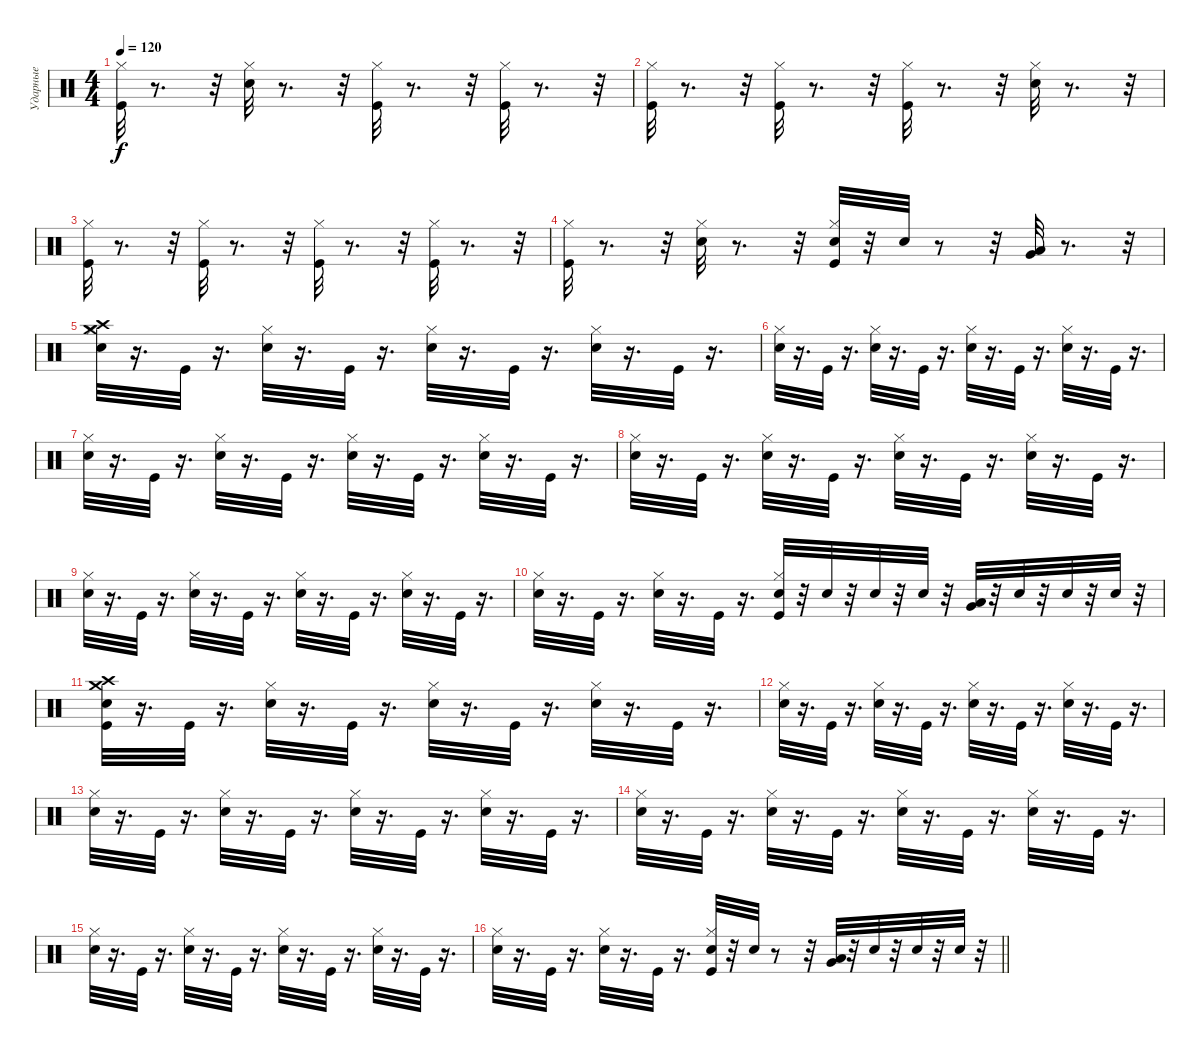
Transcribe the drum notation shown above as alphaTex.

\track ("Ударные" "Ударные") {instrument percussion}
\staff {score}
\articulation defaults
\ts (4 4)
\tempo 120
\clef neutral
\ks c
("Kick (hit)" "Hi-Hat (closed)").32{dy f} r.8{d} r.32 ("Hi-Hat (closed)" "Snare (hit) 2").32 r.8{d} r.32 ("Kick (hit)" "Hi-Hat (closed)").32 r.8{d} r.32 ("Kick (hit)" "Hi-Hat (closed)").32 r.8{d} r.32 |
("Hi-Hat (closed)" "Kick (hit)").32 r.8{d} r.32 ("Kick (hit)" "Hi-Hat (closed)").32 r.8{d} r.32 ("Kick (hit)" "Hi-Hat (closed)").32 r.8{d} r.32 ("Hi-Hat (closed)" "Snare (hit) 2").32 r.8{d} r.32 |
("Kick (hit)" "Hi-Hat (closed)").32 r.8{d} r.32 ("Kick (hit)" "Hi-Hat (closed)").32 r.8{d} r.32 ("Hi-Hat (closed)" "Kick (hit)").32 r.8{d} r.32 ("Kick (hit)" "Hi-Hat (closed)").32 r.8{d} r.32 |
("Kick (hit)" "Hi-Hat (closed)").32 r.8{d} r.32 ("Snare (hit) 2" "Hi-Hat (closed)").32 r.8{d} r.32 ("Snare (hit) 2" "Kick (hit)" "Hi-Hat (closed)").32 r.32 "Snare (hit) 2".32 r.8 r.32 ("Very Low Tom (hit)" "Low Floor Tom (hit)").32 r.8{d} r.32 |
("Hi-Hat (closed)" "Crash medium (hit)" "Crash high (hit)" "Snare (hit) 2").32 r.16{d} "Kick (hit)".32 r.16{d} ("Hi-Hat (closed)" "Snare (hit) 2").32 r.16{d} "Kick (hit)".32 r.16{d} ("Hi-Hat (closed)" "Snare (hit) 2").32 r.16{d} "Kick (hit)".32 r.16{d} ("Snare (hit) 2" "Hi-Hat (closed)").32 r.16{d} "Kick (hit)".32 r.16{d} |
("Hi-Hat (closed)" "Snare (hit) 2").32 r.16{d} "Kick (hit)".32 r.16{d} ("Snare (hit) 2" "Hi-Hat (closed)").32 r.16{d} "Kick (hit)".32 r.16{d} ("Snare (hit) 2" "Hi-Hat (closed)").32 r.16{d} "Kick (hit)".32 r.16{d} ("Snare (hit) 2" "Hi-Hat (closed)").32 r.16{d} "Kick (hit)".32 r.16{d} |
("Hi-Hat (closed)" "Snare (hit) 2").32 r.16{d} "Kick (hit)".32 r.16{d} ("Hi-Hat (closed)" "Snare (hit) 2").32 r.16{d} "Kick (hit)".32 r.16{d} ("Snare (hit) 2" "Hi-Hat (closed)").32 r.16{d} "Kick (hit)".32 r.16{d} ("Snare (hit) 2" "Hi-Hat (closed)").32 r.16{d} "Kick (hit)".32 r.16{d} |
("Hi-Hat (closed)" "Snare (hit) 2").32 r.16{d} "Kick (hit)".32 r.16{d} ("Snare (hit) 2" "Hi-Hat (closed)").32 r.16{d} "Kick (hit)".32 r.16{d} ("Snare (hit) 2" "Hi-Hat (closed)").32 r.16{d} "Kick (hit)".32 r.16{d} ("Hi-Hat (closed)" "Snare (hit) 2").32 r.16{d} "Kick (hit)".32 r.16{d} |
("Hi-Hat (closed)" "Snare (hit) 2").32 r.16{d} "Kick (hit)".32 r.16{d} ("Snare (hit) 2" "Hi-Hat (closed)").32 r.16{d} "Kick (hit)".32 r.16{d} ("Snare (hit) 2" "Hi-Hat (closed)").32 r.16{d} "Kick (hit)".32 r.16{d} ("Hi-Hat (closed)" "Snare (hit) 2").32 r.16{d} "Kick (hit)".32 r.16{d} |
("Snare (hit) 2" "Hi-Hat (closed)").32 r.16{d} "Kick (hit)".32 r.16{d} ("Hi-Hat (closed)" "Snare (hit) 2").32 r.16{d} "Kick (hit)".32 r.16{d} ("Hi-Hat (closed)" "Snare (hit) 2" "Kick (hit)").32 r.32 "Snare (hit) 2".32 r.32 "Snare (hit) 2".32 r.32 "Snare (hit) 2".32 r.32 ("Low Floor Tom (hit)" "Very Low Tom (hit)").32 r.32 "Snare (hit) 2".32 r.32 "Snare (hit) 2".32 r.32 "Snare (hit) 2".32 r.32 |
("Snare (hit) 2" "Crash medium (hit)" "Crash high (hit)" "Kick (hit)").32 r.16{d} "Kick (hit)".32 r.16{d} ("Snare (hit) 2" "Hi-Hat (closed)").32 r.16{d} "Kick (hit)".32 r.16{d} ("Snare (hit) 2" "Hi-Hat (closed)").32 r.16{d} "Kick (hit)".32 r.16{d} ("Hi-Hat (closed)" "Snare (hit) 2").32 r.16{d} "Kick (hit)".32 r.16{d} |
("Snare (hit) 2" "Hi-Hat (closed)").32 r.16{d} "Kick (hit)".32 r.16{d} ("Hi-Hat (closed)" "Snare (hit) 2").32 r.16{d} "Kick (hit)".32 r.16{d} ("Snare (hit) 2" "Hi-Hat (closed)").32 r.16{d} "Kick (hit)".32 r.16{d} ("Hi-Hat (closed)" "Snare (hit) 2").32 r.16{d} "Kick (hit)".32 r.16{d} |
("Snare (hit) 2" "Hi-Hat (closed)").32 r.16{d} "Kick (hit)".32 r.16{d} ("Hi-Hat (closed)" "Snare (hit) 2").32 r.16{d} "Kick (hit)".32 r.16{d} ("Hi-Hat (closed)" "Snare (hit) 2").32 r.16{d} "Kick (hit)".32 r.16{d} ("Hi-Hat (closed)" "Snare (hit) 2").32 r.16{d} "Kick (hit)".32 r.16{d} |
("Hi-Hat (closed)" "Snare (hit) 2").32 r.16{d} "Kick (hit)".32 r.16{d} ("Hi-Hat (closed)" "Snare (hit) 2").32 r.16{d} "Kick (hit)".32 r.16{d} ("Snare (hit) 2" "Hi-Hat (closed)").32 r.16{d} "Kick (hit)".32 r.16{d} ("Hi-Hat (closed)" "Snare (hit) 2").32 r.16{d} "Kick (hit)".32 r.16{d} |
("Hi-Hat (closed)" "Snare (hit) 2").32 r.16{d} "Kick (hit)".32 r.16{d} ("Hi-Hat (closed)" "Snare (hit) 2").32 r.16{d} "Kick (hit)".32 r.16{d} ("Snare (hit) 2" "Hi-Hat (closed)").32 r.16{d} "Kick (hit)".32 r.16{d} ("Hi-Hat (closed)" "Snare (hit) 2").32 r.16{d} "Kick (hit)".32 r.16{d} |
\barLineRight lightlight
("Snare (hit) 2" "Hi-Hat (closed)").32 r.16{d} "Kick (hit)".32 r.16{d} ("Hi-Hat (closed)" "Snare (hit) 2").32 r.16{d} "Kick (hit)".32 r.16{d} ("Kick (hit)" "Snare (hit) 2" "Hi-Hat (closed)").32 r.32 "Snare (hit) 2".32 r.8 r.32 ("Very Low Tom (hit)" "Low Floor Tom (hit)").32 r.32 "Snare (hit) 2".32 r.32 "Snare (hit) 2".32 r.32 "Snare (hit) 2".32 r.32
